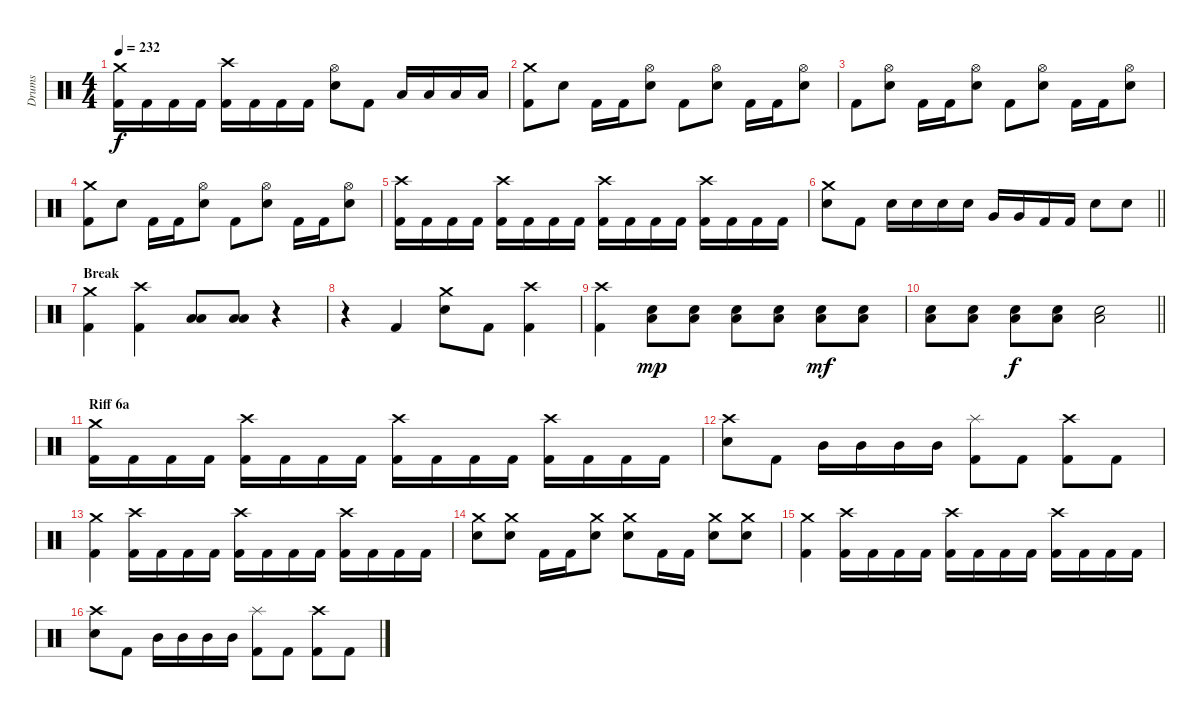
\track ("Drums" "Drums") {instrument percussion}
\staff {score}
\articulation defaults
\ts (4 4)
\tempo 232
\clef neutral
\ks c
("Kick (hit) 2" "Crash medium (hit)").16{dy f} "Kick (hit) 2".16 "Kick (hit) 2".16 "Kick (hit) 2".16 ("Crash high (hit)" "Kick (hit) 2").16 "Kick (hit) 2".16 "Kick (hit) 2".16 "Kick (hit) 2".16 ("Electric Snare (hit)" "Hi-Hat (open)").8 "Kick (hit) 2".8 "Low Tom (hit)".16 "Low Tom (hit)".16 "Low Tom (hit)".16 "Low Tom (hit)".16 |
("Kick (hit) 2" "Crash medium (hit)").8 "Electric Snare (hit)".8 "Kick (hit) 2".16 "Kick (hit) 2".16 ("Hi-Hat (open)" "Electric Snare (hit)").8 "Kick (hit) 2".8 ("Hi-Hat (open)" "Electric Snare (hit)").8 "Kick (hit) 2".16 "Kick (hit) 2".16 ("Hi-Hat (open)" "Electric Snare (hit)").8 |
"Kick (hit) 2".8 ("Hi-Hat (open)" "Electric Snare (hit)").8 "Kick (hit) 2".16 "Kick (hit) 2".16 ("Hi-Hat (open)" "Electric Snare (hit)").8 "Kick (hit) 2".8 ("Hi-Hat (open)" "Electric Snare (hit)").8 "Kick (hit) 2".16 "Kick (hit) 2".16 ("Hi-Hat (open)" "Electric Snare (hit)").8 |
("Kick (hit) 2" "Crash medium (hit)").8 "Electric Snare (hit)".8 "Kick (hit) 2".16 "Kick (hit) 2".16 ("Hi-Hat (open)" "Electric Snare (hit)").8 "Kick (hit) 2".8 ("Hi-Hat (open)" "Electric Snare (hit)").8 "Kick (hit) 2".16 "Kick (hit) 2".16 ("Hi-Hat (open)" "Electric Snare (hit)").8 |
("Crash high (hit)" "Kick (hit) 2").16 "Kick (hit) 2".16 "Kick (hit) 2".16 "Kick (hit) 2".16 ("Crash high (hit)" "Kick (hit) 2").16 "Kick (hit) 2".16 "Kick (hit) 2".16 "Kick (hit) 2".16 ("Crash high (hit)" "Kick (hit) 2").16 "Kick (hit) 2".16 "Kick (hit) 2".16 "Kick (hit) 2".16 ("Crash high (hit)" "Kick (hit) 2").16 "Kick (hit) 2".16 "Kick (hit) 2".16 "Kick (hit) 2".16 |
\barLineRight lightlight
("Electric Snare (hit)" "Crash medium (hit)").8 "Kick (hit) 2".8 "Electric Snare (hit)".16 "Electric Snare (hit)".16 "Electric Snare (hit)".16 "Electric Snare (hit)".16 "Very Low Tom (hit)".16 "Very Low Tom (hit)".16 "Kick (hit) 2".16 "Kick (hit) 2".16 "Electric Snare (hit)".8 "Electric Snare (hit)".8 |
\section ("" "Break")
("Crash medium (hit)" "Kick (hit) 2").4 ("Kick (hit) 2" "Crash high (hit)").4 ("Low Floor Tom (hit)" "Low Tom (hit)").8 ("Low Tom (hit)" "Low Floor Tom (hit)").8 r.4 |
r.4 "Kick (hit) 2".4 ("Crash medium (hit)" "Electric Snare (hit)").8 "Kick (hit) 2".8 ("Crash high (hit)" "Kick (hit) 2").4 |
("Crash high (hit)" "Kick (hit) 2").4 ("Electric Snare (hit)" "Low Floor Tom (hit)").8{dy mp} ("Electric Snare (hit)" "Low Floor Tom (hit)").8 ("Electric Snare (hit)" "Low Floor Tom (hit)").8 ("Electric Snare (hit)" "Low Floor Tom (hit)").8 ("Electric Snare (hit)" "Low Floor Tom (hit)").8{dy mf} ("Electric Snare (hit)" "Low Floor Tom (hit)").8 |
\barLineRight lightlight
("Electric Snare (hit)" "Low Floor Tom (hit)").8 ("Electric Snare (hit)" "Low Floor Tom (hit)").8 ("Electric Snare (hit)" "Low Floor Tom (hit)").8{dy f} ("Electric Snare (hit)" "Low Floor Tom (hit)").8 ("Electric Snare (hit)" "Low Floor Tom (hit)").2 |
\section ("" "Riff 6a")
("Crash medium (hit)" "Kick (hit) 2").16 "Kick (hit) 2".16 "Kick (hit) 2".16 "Kick (hit) 2".16 ("Crash high (hit)" "Kick (hit) 2").16 "Kick (hit) 2".16 "Kick (hit) 2".16 "Kick (hit) 2".16 ("Crash high (hit)" "Kick (hit) 2").16 "Kick (hit) 2".16 "Kick (hit) 2".16 "Kick (hit) 2".16 ("Crash high (hit)" "Kick (hit) 2").16 "Kick (hit) 2".16 "Kick (hit) 2".16 "Kick (hit) 2".16 |
("Electric Snare (hit)" "Crash high (hit)").8 "Kick (hit) 2".8 "Mid Tom (hit)".16 "Mid Tom (hit)".16 "Mid Tom (hit)".16 "Mid Tom (hit)".16 ("Splash (hit)" "Kick (hit) 2").8 "Kick (hit) 2".8 ("Crash high (hit)" "Kick (hit) 2").8 "Kick (hit) 2".8 |
("Crash medium (hit)" "Kick (hit) 2").4 ("Crash high (hit)" "Kick (hit) 2").16 "Kick (hit) 2".16 "Kick (hit) 2".16 "Kick (hit) 2".16 ("Crash high (hit)" "Kick (hit) 2").16 "Kick (hit) 2".16 "Kick (hit) 2".16 "Kick (hit) 2".16 ("Crash high (hit)" "Kick (hit) 2").16 "Kick (hit) 2".16 "Kick (hit) 2".16 "Kick (hit) 2".16 |
("Crash medium (hit)" "Electric Snare (hit)").8 ("Crash medium (hit)" "Electric Snare (hit)").8 "Kick (hit) 2".16 "Kick (hit) 2".16 ("Crash medium (hit)" "Electric Snare (hit)").8 ("Crash medium (hit)" "Electric Snare (hit)").8 "Kick (hit) 2".16 "Kick (hit) 2".16 ("Crash medium (hit)" "Electric Snare (hit)").8 ("Crash medium (hit)" "Electric Snare (hit)").8 |
("Crash medium (hit)" "Kick (hit) 2").4 ("Crash high (hit)" "Kick (hit) 2").16 "Kick (hit) 2".16 "Kick (hit) 2".16 "Kick (hit) 2".16 ("Crash high (hit)" "Kick (hit) 2").16 "Kick (hit) 2".16 "Kick (hit) 2".16 "Kick (hit) 2".16 ("Crash high (hit)" "Kick (hit) 2").16 "Kick (hit) 2".16 "Kick (hit) 2".16 "Kick (hit) 2".16 |
("Electric Snare (hit)" "Crash high (hit)").8 "Kick (hit) 2".8 "Mid Tom (hit)".16 "Mid Tom (hit)".16 "Mid Tom (hit)".16 "Mid Tom (hit)".16 ("Splash (hit)" "Kick (hit) 2").8 "Kick (hit) 2".8 ("Crash high (hit)" "Kick (hit) 2").8 "Kick (hit) 2".8
